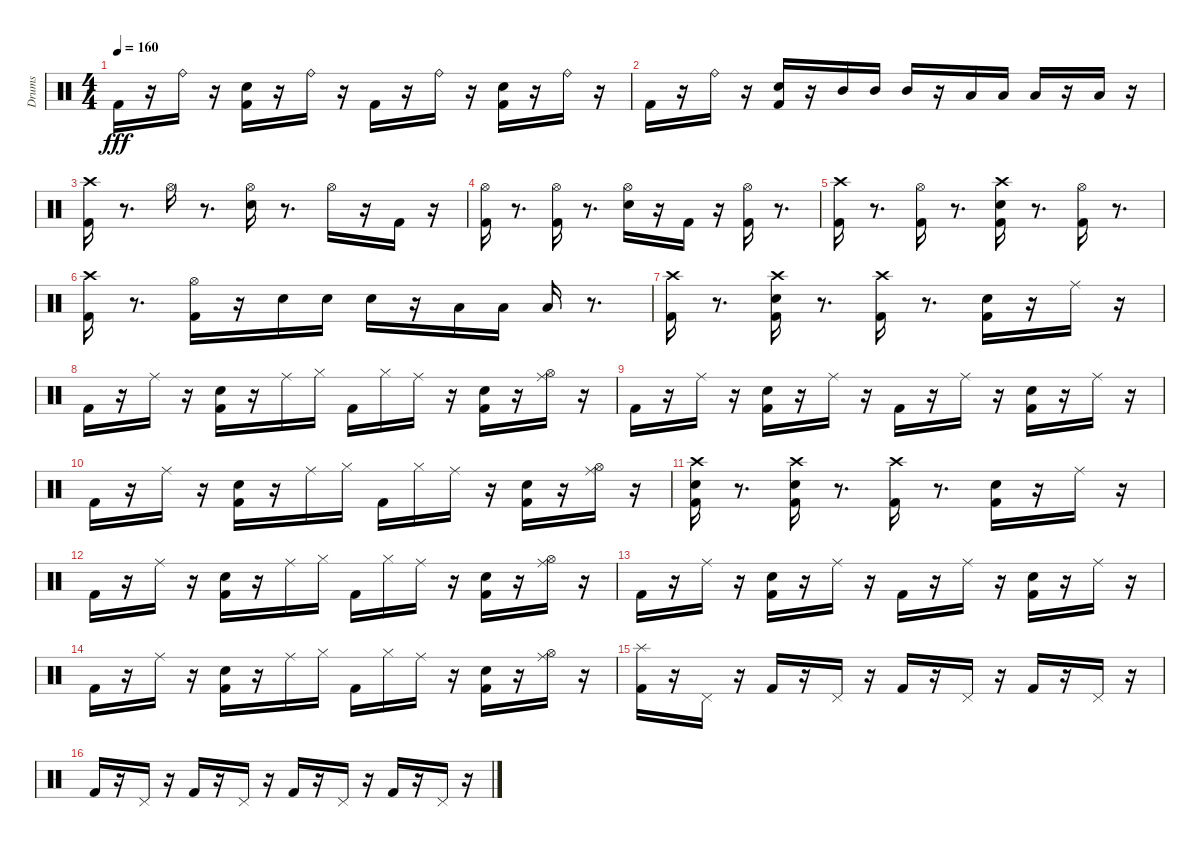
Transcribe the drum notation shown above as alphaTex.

\track ("Drums" "Drums") {instrument percussion}
\staff {score}
\articulation defaults
\ts (4 4)
\tempo 160
\clef neutral
\ks c "Kick (hit) 2".16{dy fff}
r.16 "Ride (bell)".16 r.16 ("Electric Snare (hit)" "Kick (hit) 2").16 r.16 "Ride (bell)".16 r.16 "Kick (hit) 2".16 r.16 "Ride (bell)".16 r.16 ("Electric Snare (hit)" "Kick (hit) 2").16 r.16 "Ride (bell)".16 r.16 |
"Kick (hit) 2".16 r.16 "Ride (bell)".16 r.16 ("Electric Snare (hit)" "Kick (hit) 2").16 r.16 "Mid Tom (hit)".16 "Mid Tom (hit)".16 "Mid Tom (hit)".16 r.16 "Low Tom (hit)".16 "Low Tom (hit)".16 "Low Tom (hit)".16 r.16 "Low Tom (hit)".16 r.16 |
("Crash high (hit)" "Kick (hit) 2").16 r.8{d} "Hi-Hat (open)".16 r.8{d} ("Hi-Hat (open)" "Electric Snare (hit)").16 r.8{d} "Hi-Hat (open)".16 r.16 "Kick (hit) 2".16 r.16 |
("Kick (hit) 2" "Hi-Hat (open)").16 r.8{d} ("Hi-Hat (open)" "Kick (hit) 2").16 r.8{d} ("Hi-Hat (open)" "Electric Snare (hit)").16 r.16 "Kick (hit) 2".16 r.16 ("Kick (hit) 2" "Hi-Hat (open)").16 r.8{d} |
("Kick (hit) 2" "Crash high (hit)").16 r.8{d} ("Kick (hit) 2" "Hi-Hat (open)").16 r.8{d} ("Electric Snare (hit)" "Kick (hit) 2" "Crash high (hit)").16 r.8{d} ("Kick (hit) 2" "Hi-Hat (open)").16 r.8{d} |
("Kick (hit) 2" "Crash high (hit)").16 r.8{d} ("Kick (hit) 2" "Hi-Hat (open)").16 r.16 "Electric Snare (hit)".16 "Electric Snare (hit)".16 "Electric Snare (hit)".16 r.16 "Low Tom (hit)".16 "Low Tom (hit)".16 "Low Tom (hit)".16 r.8{d} |
("Crash high (hit)" "Kick (hit) 2").16 r.8{d} ("Crash high (hit)" "Electric Snare (hit)" "Kick (hit) 2").16 r.8{d} ("Crash high (hit)" "Kick (hit) 2").16 r.8{d} ("Electric Snare (hit)" "Kick (hit) 2").16 r.16 "Ride (middle)".16 r.16 |
"Kick (hit) 2".16 r.16 "Ride (middle)".16 r.16 ("Electric Snare (hit)" "Kick (hit) 2").16 r.16 "Ride (middle)".16 "Hi-Hat (closed)".16 "Kick (hit) 2".16 "Hi-Hat (closed)".16 "Ride (middle)".16 r.16 ("Electric Snare (hit)" "Kick (hit) 2").16 r.16 ("Ride (middle)" "Hi-Hat (open)").16 r.16 |
"Kick (hit) 2".16 r.16 "Ride (middle)".16 r.16 ("Electric Snare (hit)" "Kick (hit) 2").16 r.16 "Ride (middle)".16 r.16 "Kick (hit) 2".16 r.16 "Ride (middle)".16 r.16 ("Electric Snare (hit)" "Kick (hit) 2").16 r.16 "Ride (middle)".16 r.16 |
"Kick (hit) 2".16 r.16 "Ride (middle)".16 r.16 ("Electric Snare (hit)" "Kick (hit) 2").16 r.16 "Ride (middle)".16 "Hi-Hat (closed)".16 "Kick (hit) 2".16 "Hi-Hat (closed)".16 "Ride (middle)".16 r.16 ("Electric Snare (hit)" "Kick (hit) 2").16 r.16 ("Hi-Hat (open)" "Ride (middle)").16 r.16 |
("Electric Snare (hit)" "Kick (hit) 2" "Crash high (hit)").16 r.8{d} ("Crash high (hit)" "Electric Snare (hit)" "Kick (hit) 2").16 r.8{d} ("Crash high (hit)" "Kick (hit) 2").16 r.8{d} ("Kick (hit) 2" "Electric Snare (hit)").16 r.16 "Ride (middle)".16 r.16 |
"Kick (hit) 2".16 r.16 "Ride (middle)".16 r.16 ("Electric Snare (hit)" "Kick (hit) 2").16 r.16 "Ride (middle)".16 "Hi-Hat (closed)".16 "Kick (hit) 2".16 "Hi-Hat (closed)".16 "Ride (middle)".16 r.16 ("Electric Snare (hit)" "Kick (hit) 2").16 r.16 ("Hi-Hat (open)" "Ride (middle)").16 r.16 |
"Kick (hit) 2".16 r.16 "Ride (middle)".16 r.16 ("Kick (hit) 2" "Electric Snare (hit)").16 r.16 "Ride (middle)".16 r.16 "Kick (hit) 2".16 r.16 "Ride (middle)".16 r.16 ("Electric Snare (hit)" "Kick (hit) 2").16 r.16 "Ride (middle)".16 r.16 |
"Kick (hit) 2".16 r.16 "Ride (middle)".16 r.16 ("Kick (hit) 2" "Electric Snare (hit)").16 r.16 "Ride (middle)".16 "Hi-Hat (closed)".16 "Kick (hit) 2".16 "Hi-Hat (closed)".16 "Ride (middle)".16 r.16 ("Kick (hit) 2" "Electric Snare (hit)").16 r.16 ("Hi-Hat (open)" "Ride (middle)").16 r.16 |
("Splash (hit)" "Kick (hit) 2").16 r.16 "Pedal Hi-Hat (hit)".16 r.16 "Kick (hit) 2".16 r.16 "Pedal Hi-Hat (hit)".16 r.16 "Kick (hit) 2".16 r.16 "Pedal Hi-Hat (hit)".16 r.16 "Kick (hit) 2".16 r.16 "Pedal Hi-Hat (hit)".16 r.16 |
"Kick (hit) 2".16 r.16 "Pedal Hi-Hat (hit)".16 r.16 "Kick (hit) 2".16 r.16 "Pedal Hi-Hat (hit)".16 r.16 "Kick (hit) 2".16 r.16 "Pedal Hi-Hat (hit)".16 r.16 "Kick (hit) 2".16 r.16 "Pedal Hi-Hat (hit)".16 r.16
